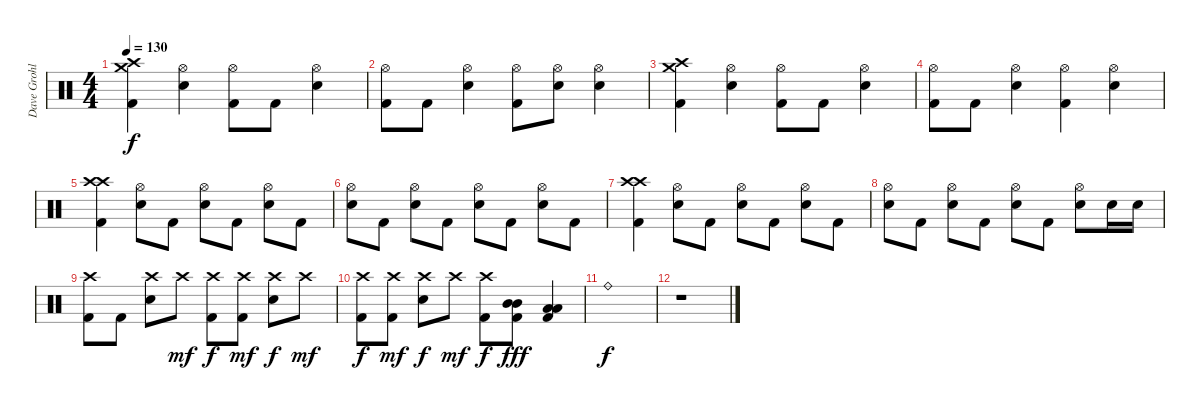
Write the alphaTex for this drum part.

\track ("Dave Grohl" "Dave Grohl") {instrument percussion}
\staff {score}
\articulation defaults
\ts (4 4)
\tempo 130
\clef neutral
\ks c
("Crash high (hit)" "Crash medium (hit)" "Kick (hit) 2").4{dy f} ("Hi-Hat (open)" "Electric Snare (hit)").4 ("Hi-Hat (open)" "Kick (hit) 2").8 "Kick (hit) 2".8 ("Hi-Hat (open)" "Electric Snare (hit)").4 |
("Hi-Hat (open)" "Kick (hit) 2").8 "Kick (hit) 2".8 ("Hi-Hat (open)" "Electric Snare (hit)").4 ("Hi-Hat (open)" "Kick (hit) 2").8 ("Hi-Hat (open)" "Electric Snare (hit)").8 ("Hi-Hat (open)" "Electric Snare (hit)").4 |
("Crash high (hit)" "Crash medium (hit)" "Kick (hit) 2").4 ("Hi-Hat (open)" "Electric Snare (hit)").4 ("Hi-Hat (open)" "Kick (hit) 2").8 "Kick (hit) 2".8 ("Hi-Hat (open)" "Electric Snare (hit)").4 |
("Hi-Hat (open)" "Kick (hit) 2").8 "Kick (hit) 2".8 ("Hi-Hat (open)" "Electric Snare (hit)").4 ("Hi-Hat (open)" "Kick (hit) 2").4 ("Hi-Hat (open)" "Electric Snare (hit)").4 |
("Crash high (hit)" "Crash high (hit)" "Kick (hit) 2").4 ("Hi-Hat (open)" "Electric Snare (hit)").8 "Kick (hit) 2".8 ("Hi-Hat (open)" "Electric Snare (hit)").8 "Kick (hit) 2".8 ("Hi-Hat (open)" "Electric Snare (hit)").8 "Kick (hit) 2".8 |
("Hi-Hat (open)" "Electric Snare (hit)").8 "Kick (hit) 2".8 ("Hi-Hat (open)" "Electric Snare (hit)").8 "Kick (hit) 2".8 ("Hi-Hat (open)" "Electric Snare (hit)").8 "Kick (hit) 2".8 ("Hi-Hat (open)" "Electric Snare (hit)").8 "Kick (hit) 2".8 |
("Crash high (hit)" "Crash high (hit)" "Kick (hit) 2").4 ("Hi-Hat (open)" "Electric Snare (hit)").8 "Kick (hit) 2".8 ("Hi-Hat (open)" "Electric Snare (hit)").8 "Kick (hit) 2".8 ("Hi-Hat (open)" "Electric Snare (hit)").8 "Kick (hit) 2".8 |
("Hi-Hat (open)" "Electric Snare (hit)").8 "Kick (hit) 2".8 ("Hi-Hat (open)" "Electric Snare (hit)").8 "Kick (hit) 2".8 ("Hi-Hat (open)" "Electric Snare (hit)").8 "Kick (hit) 2".8 ("Hi-Hat (open)" "Electric Snare (hit)").8 "Electric Snare (hit)".16 "Electric Snare (hit)".16 |
("Crash high (hit)" "Kick (hit) 2").8 "Kick (hit) 2".8 ("Crash high (hit)" "Electric Snare (hit)").8 "Crash high (hit)".8{dy mf} ("Crash high (hit)" "Kick (hit) 2").8{dy f} ("Crash high (hit)" "Kick (hit) 2").8{dy mf} ("Crash high (hit)" "Electric Snare (hit)").8{dy f} "Crash high (hit)".8{dy mf} |
("Crash high (hit)" "Kick (hit) 2").8{dy f} ("Crash high (hit)" "Kick (hit) 2").8{dy mf} ("Crash high (hit)" "Electric Snare (hit)").8{dy f} "Crash high (hit)".8{dy mf} ("Crash high (hit)" "Kick (hit) 2").8{dy f} ("Mid Tom (hit)" "Mid Tom (hit)" "Kick (hit) 2").8{dy fff} ("Low Tom (hit)" "Low Tom (hit)" "Kick (hit) 2").4 |
"Ride (bell)".1{dy f} |
r.1
